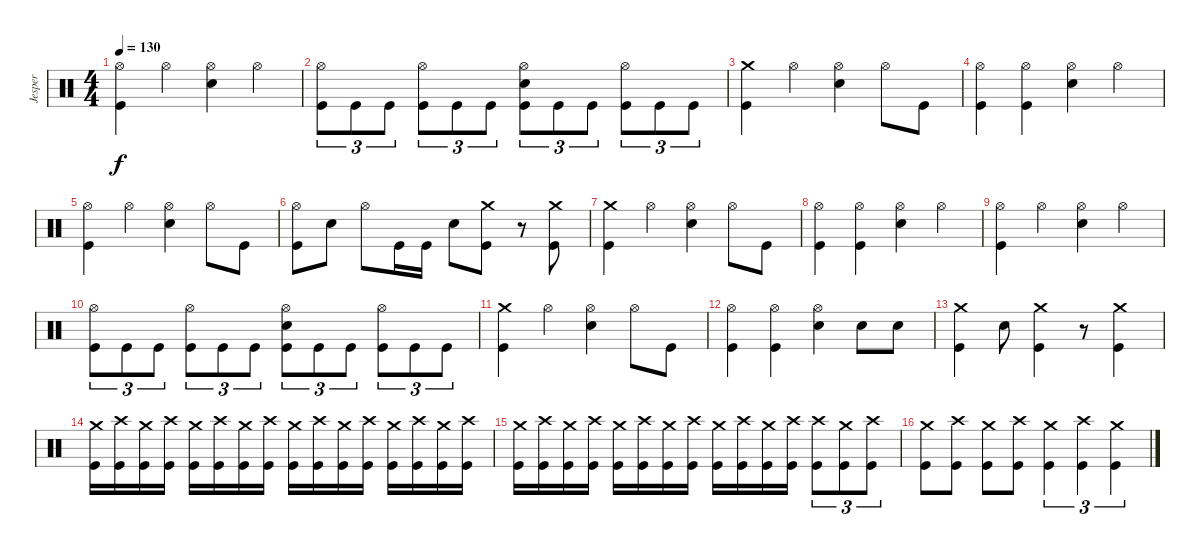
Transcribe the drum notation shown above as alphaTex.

\track ("Jesper" "Jesper") {instrument percussion}
\staff {score}
\articulation defaults
\ts (4 4)
\tempo 130
\clef neutral
\ks c
("Hi-Hat (open)" "Kick (hit)").4{dy f} "Hi-Hat (open)".4 ("Hi-Hat (open)" "Electric Snare (hit)").4 "Hi-Hat (open)".4 |
("Hi-Hat (open)" "Kick (hit)").8{tu (3 2)} "Kick (hit)".8{tu (3 2)} "Kick (hit)".8{tu (3 2)} ("Hi-Hat (open)" "Kick (hit)").8{tu (3 2)} "Kick (hit)".8{tu (3 2)} "Kick (hit)".8{tu (3 2)} ("Hi-Hat (open)" "Electric Snare (hit)" "Kick (hit)").8{tu (3 2)} "Kick (hit)".8{tu (3 2)} "Kick (hit)".8{tu (3 2)} ("Hi-Hat (open)" "Kick (hit)").8{tu (3 2)} "Kick (hit)".8{tu (3 2)} "Kick (hit)".8{tu (3 2)} |
("Crash medium (hit)" "Kick (hit)").4 "Hi-Hat (open)".4 ("Hi-Hat (open)" "Electric Snare (hit)").4 "Hi-Hat (open)".8 "Kick (hit)".8 |
("Hi-Hat (open)" "Kick (hit)").4 ("Hi-Hat (open)" "Kick (hit)").4 ("Hi-Hat (open)" "Electric Snare (hit)").4 "Hi-Hat (open)".4 |
("Hi-Hat (open)" "Kick (hit)").4 "Hi-Hat (open)".4 ("Hi-Hat (open)" "Electric Snare (hit)").4 "Hi-Hat (open)".8 "Kick (hit)".8 |
("Hi-Hat (open)" "Kick (hit)").8 "Electric Snare (hit)".8 "Hi-Hat (open)".8 "Kick (hit)".16 "Kick (hit)".16 "Electric Snare (hit)".8 ("Crash medium (hit)" "Kick (hit)").8 r.8{volume 0} ("Crash medium (hit)" "Kick (hit)").8{volume 16} |
("Crash medium (hit)" "Kick (hit)").4 "Hi-Hat (open)".4 ("Hi-Hat (open)" "Electric Snare (hit)").4 "Hi-Hat (open)".8 "Kick (hit)".8 |
("Hi-Hat (open)" "Kick (hit)").4 ("Hi-Hat (open)" "Kick (hit)").4 ("Hi-Hat (open)" "Electric Snare (hit)").4 "Hi-Hat (open)".4 |
("Hi-Hat (open)" "Kick (hit)").4 "Hi-Hat (open)".4 ("Hi-Hat (open)" "Electric Snare (hit)").4 "Hi-Hat (open)".4 |
("Hi-Hat (open)" "Kick (hit)").8{tu (3 2)} "Kick (hit)".8{tu (3 2)} "Kick (hit)".8{tu (3 2)} ("Hi-Hat (open)" "Kick (hit)").8{tu (3 2)} "Kick (hit)".8{tu (3 2)} "Kick (hit)".8{tu (3 2)} ("Hi-Hat (open)" "Electric Snare (hit)" "Kick (hit)").8{tu (3 2)} "Kick (hit)".8{tu (3 2)} "Kick (hit)".8{tu (3 2)} ("Hi-Hat (open)" "Kick (hit)").8{tu (3 2)} "Kick (hit)".8{tu (3 2)} "Kick (hit)".8{tu (3 2)} |
("Crash medium (hit)" "Kick (hit)").4 "Hi-Hat (open)".4 ("Hi-Hat (open)" "Electric Snare (hit)").4 "Hi-Hat (open)".8 "Kick (hit)".8 |
("Hi-Hat (open)" "Kick (hit)").4 ("Hi-Hat (open)" "Kick (hit)").4 ("Hi-Hat (open)" "Electric Snare (hit)").4 "Electric Snare (hit)".8 "Electric Snare (hit)".8 |
("Crash medium (hit)" "Kick (hit)").4 "Electric Snare (hit)".8 ("Crash medium (hit)" "Kick (hit)").4 r.8 ("Crash medium (hit)" "Kick (hit)").4 |
("Crash medium (hit)" "Kick (hit)").16 ("Crash high (hit)" "Kick (hit)").16 ("Crash medium (hit)" "Kick (hit)").16 ("Crash high (hit)" "Kick (hit)").16 ("Crash medium (hit)" "Kick (hit)").16 ("Crash high (hit)" "Kick (hit)").16 ("Crash medium (hit)" "Kick (hit)").16 ("Crash high (hit)" "Kick (hit)").16 ("Crash medium (hit)" "Kick (hit)").16 ("Crash high (hit)" "Kick (hit)").16 ("Crash medium (hit)" "Kick (hit)").16 ("Crash high (hit)" "Kick (hit)").16 ("Crash medium (hit)" "Kick (hit)").16 ("Crash high (hit)" "Kick (hit)").16 ("Crash medium (hit)" "Kick (hit)").16 ("Crash high (hit)" "Kick (hit)").16 |
("Crash medium (hit)" "Kick (hit)").16 ("Crash high (hit)" "Kick (hit)").16 ("Crash medium (hit)" "Kick (hit)").16 ("Crash high (hit)" "Kick (hit)").16 ("Crash medium (hit)" "Kick (hit)").16 ("Crash high (hit)" "Kick (hit)").16 ("Crash medium (hit)" "Kick (hit)").16 ("Crash high (hit)" "Kick (hit)").16 ("Crash medium (hit)" "Kick (hit)").16 ("Crash high (hit)" "Kick (hit)").16 ("Crash medium (hit)" "Kick (hit)").16 ("Crash high (hit)" "Kick (hit)").16 ("Crash high (hit)" "Kick (hit)").8{tu (3 2)} ("Crash medium (hit)" "Kick (hit)").8{tu (3 2)} ("Crash high (hit)" "Kick (hit)").8{tu (3 2)} |
("Crash medium (hit)" "Kick (hit)").8 ("Crash high (hit)" "Kick (hit)").8 ("Crash medium (hit)" "Kick (hit)").8 ("Crash high (hit)" "Kick (hit)").8 ("Crash medium (hit)" "Kick (hit)").4{tu (3 2)} ("Crash high (hit)" "Kick (hit)").4{tu (3 2)} ("Crash medium (hit)" "Kick (hit)").4{tu (3 2)}
